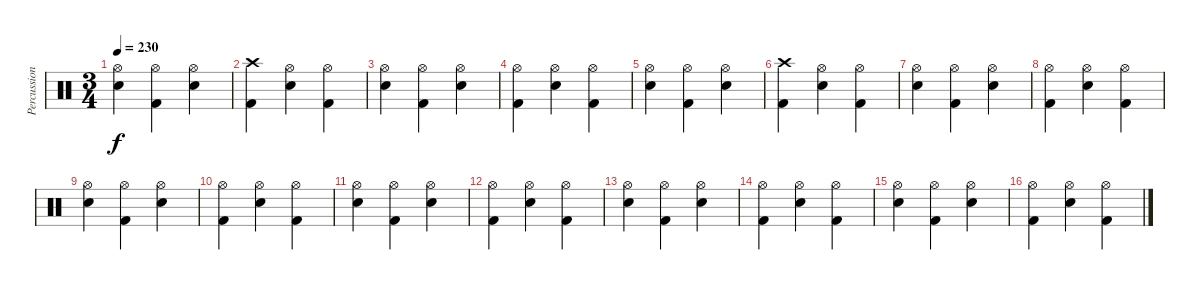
\track ("Percussion" "Percussion") {instrument percussion}
\staff {score}
\articulation defaults
\ts (3 4)
\tempo 230
\clef neutral
\ks c
("Hi-Hat (open)" "Electric Snare (hit)").4{dy f} ("Hi-Hat (open)" "Kick (hit) 2").4 ("Hi-Hat (open)" "Electric Snare (hit)").4 |
("Crash high (hit)" "Kick (hit) 2").4 ("Hi-Hat (open)" "Electric Snare (hit)").4 ("Hi-Hat (open)" "Kick (hit) 2").4 |
("Hi-Hat (open)" "Electric Snare (hit)").4 ("Hi-Hat (open)" "Kick (hit) 2").4 ("Hi-Hat (open)" "Electric Snare (hit)").4 |
("Hi-Hat (open)" "Kick (hit) 2").4 ("Hi-Hat (open)" "Electric Snare (hit)").4 ("Hi-Hat (open)" "Kick (hit) 2").4 |
("Hi-Hat (open)" "Electric Snare (hit)").4 ("Hi-Hat (open)" "Kick (hit) 2").4 ("Hi-Hat (open)" "Electric Snare (hit)").4 |
("Crash high (hit)" "Kick (hit) 2").4 ("Hi-Hat (open)" "Electric Snare (hit)").4 ("Hi-Hat (open)" "Kick (hit) 2").4 |
("Hi-Hat (open)" "Electric Snare (hit)").4 ("Hi-Hat (open)" "Kick (hit) 2").4 ("Hi-Hat (open)" "Electric Snare (hit)").4 |
("Hi-Hat (open)" "Kick (hit) 2").4 ("Hi-Hat (open)" "Electric Snare (hit)").4 ("Hi-Hat (open)" "Kick (hit) 2").4 |
("Hi-Hat (open)" "Electric Snare (hit)").4 ("Hi-Hat (open)" "Kick (hit) 2").4 ("Hi-Hat (open)" "Electric Snare (hit)").4 |
("Hi-Hat (open)" "Kick (hit) 2").4 ("Hi-Hat (open)" "Electric Snare (hit)").4 ("Hi-Hat (open)" "Kick (hit) 2").4 |
("Hi-Hat (open)" "Electric Snare (hit)").4 ("Hi-Hat (open)" "Kick (hit) 2").4 ("Hi-Hat (open)" "Electric Snare (hit)").4 |
("Hi-Hat (open)" "Kick (hit) 2").4 ("Hi-Hat (open)" "Electric Snare (hit)").4 ("Hi-Hat (open)" "Kick (hit) 2").4 |
("Hi-Hat (open)" "Electric Snare (hit)").4 ("Hi-Hat (open)" "Kick (hit) 2").4 ("Hi-Hat (open)" "Electric Snare (hit)").4 |
("Hi-Hat (open)" "Kick (hit) 2").4 ("Hi-Hat (open)" "Electric Snare (hit)").4 ("Hi-Hat (open)" "Kick (hit) 2").4 |
("Hi-Hat (open)" "Electric Snare (hit)").4 ("Hi-Hat (open)" "Kick (hit) 2").4 ("Hi-Hat (open)" "Electric Snare (hit)").4 |
("Hi-Hat (open)" "Kick (hit) 2").4 ("Hi-Hat (open)" "Electric Snare (hit)").4 ("Hi-Hat (open)" "Kick (hit) 2").4
